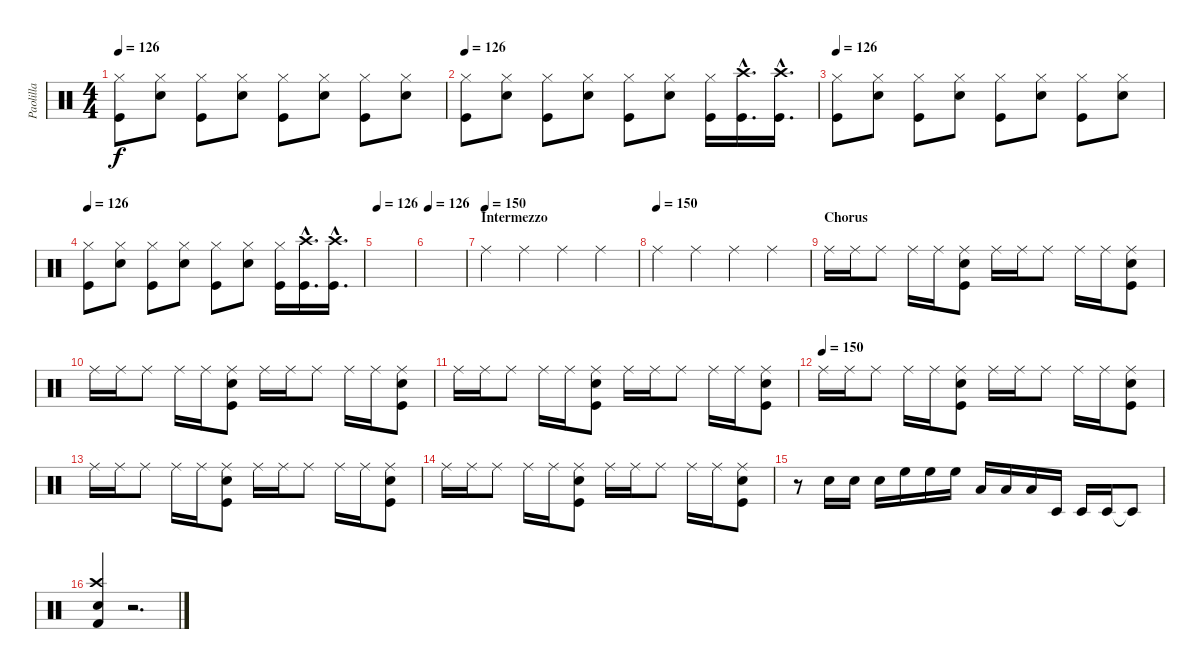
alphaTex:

\track ("Paolilla" "Paolilla") {instrument percussion}
\staff {score}
\articulation defaults
\ts (4 4)
\tempo 126
\clef neutral
\ks c
("Hi-Hat (closed)" "Kick (hit)").8{dy f} ("Hi-Hat (closed)" "Snare (hit) 2").8 ("Hi-Hat (closed)" "Kick (hit)").8 ("Hi-Hat (closed)" "Snare (hit) 2").8 ("Hi-Hat (closed)" "Kick (hit)").8 ("Hi-Hat (closed)" "Snare (hit) 2").8 ("Hi-Hat (closed)" "Kick (hit)").8 ("Hi-Hat (closed)" "Snare (hit) 2").8 |
\tempo 126
("Hi-Hat (closed)" "Kick (hit)").8 ("Hi-Hat (closed)" "Snare (hit) 2").8 ("Hi-Hat (closed)" "Kick (hit)").8 ("Hi-Hat (closed)" "Snare (hit) 2").8 ("Hi-Hat (closed)" "Kick (hit)").8 ("Hi-Hat (closed)" "Snare (hit) 2").8 ("Hi-Hat (closed)" "Kick (hit)").16 ("Crash high (hit)"{hac} "Kick (hit)"{hac}).16{d} ("Crash high (hit)"{hac} "Kick (hit)"{hac}).16{d} |
\tempo 126
("Hi-Hat (closed)" "Kick (hit)").8 ("Hi-Hat (closed)" "Snare (hit) 2").8 ("Hi-Hat (closed)" "Kick (hit)").8 ("Hi-Hat (closed)" "Snare (hit) 2").8 ("Hi-Hat (closed)" "Kick (hit)").8 ("Hi-Hat (closed)" "Snare (hit) 2").8 ("Hi-Hat (closed)" "Kick (hit)").8 ("Hi-Hat (closed)" "Snare (hit) 2").8 |
\tempo 126
("Hi-Hat (closed)" "Kick (hit)").8 ("Hi-Hat (closed)" "Snare (hit) 2").8 ("Hi-Hat (closed)" "Kick (hit)").8 ("Hi-Hat (closed)" "Snare (hit) 2").8 ("Hi-Hat (closed)" "Kick (hit)").8 ("Hi-Hat (closed)" "Snare (hit) 2").8 ("Hi-Hat (closed)" "Kick (hit)").16 ("Crash high (hit)"{hac} "Kick (hit)"{hac}).16{d} ("Crash high (hit)"{hac} "Kick (hit)"{hac}).16{d} |
\tempo 126
|
\tempo 126
|
\section ("" "Intermezzo")
\tempo (150)
"Ride (middle)".4 "Ride (middle)".4 "Ride (middle)".4 "Ride (middle)".4 |
\tempo (150)
"Ride (middle)".4 "Ride (middle)".4 "Ride (middle)".4 "Ride (middle)".4 |
\section ("" "Chorus")
"Ride (middle)".16 "Ride (middle)".16 "Ride (middle)".8 "Ride (middle)".16 "Ride (middle)".16 ("Ride (middle)" "Snare (hit) 2" "Kick (hit)").8 "Ride (middle)".16 "Ride (middle)".16 "Ride (middle)".8 "Ride (middle)".16 "Ride (middle)".16 ("Ride (middle)" "Snare (hit) 2" "Kick (hit)").8 |
"Ride (middle)".16 "Ride (middle)".16 "Ride (middle)".8 "Ride (middle)".16 "Ride (middle)".16 ("Ride (middle)" "Snare (hit) 2" "Kick (hit)").8 "Ride (middle)".16 "Ride (middle)".16 "Ride (middle)".8 "Ride (middle)".16 "Ride (middle)".16 ("Ride (middle)" "Snare (hit) 2" "Kick (hit)").8 |
"Ride (middle)".16 "Ride (middle)".16 "Ride (middle)".8 "Ride (middle)".16 "Ride (middle)".16 ("Ride (middle)" "Snare (hit) 2" "Kick (hit)").8 "Ride (middle)".16 "Ride (middle)".16 "Ride (middle)".8 "Ride (middle)".16 "Ride (middle)".16 ("Ride (middle)" "Snare (hit) 2" "Kick (hit)").8 |
\tempo (150)
"Ride (middle)".16 "Ride (middle)".16 "Ride (middle)".8 "Ride (middle)".16 "Ride (middle)".16 ("Ride (middle)" "Snare (hit) 2" "Kick (hit)").8 "Ride (middle)".16 "Ride (middle)".16 "Ride (middle)".8 "Ride (middle)".16 "Ride (middle)".16 ("Ride (middle)" "Snare (hit) 2" "Kick (hit)").8 |
"Ride (middle)".16 "Ride (middle)".16 "Ride (middle)".8 "Ride (middle)".16 "Ride (middle)".16 ("Ride (middle)" "Snare (hit) 2" "Kick (hit)").8 "Ride (middle)".16 "Ride (middle)".16 "Ride (middle)".8 "Ride (middle)".16 "Ride (middle)".16 ("Ride (middle)" "Snare (hit) 2" "Kick (hit)").8 |
"Ride (middle)".16 "Ride (middle)".16 "Ride (middle)".8 "Ride (middle)".16 "Ride (middle)".16 ("Ride (middle)" "Snare (hit) 2" "Kick (hit)").8 "Ride (middle)".16 "Ride (middle)".16 "Ride (middle)".8 "Ride (middle)".16 "Ride (middle)".16 ("Ride (middle)" "Snare (hit) 2" "Kick (hit)").8 |
r.8 "Snare (hit) 2".16 "Snare (hit) 2".16 "Snare (hit) 2".16 "High Floor Tom (hit)".16 "High Floor Tom (hit)".16 "High Floor Tom (hit)".16 "Low Tom (hit)".16 "Low Tom (hit)".16 "Low Tom (hit)".16 "Timbale low (hit)".16 "Timbale low (hit)".16 "Timbale low (hit)".16 "Timbale low (hit)"{t}.8 |
("Snare (hit) 2" "Crash high (hit)" "Kick (hit) 2").4 r.2{d}
